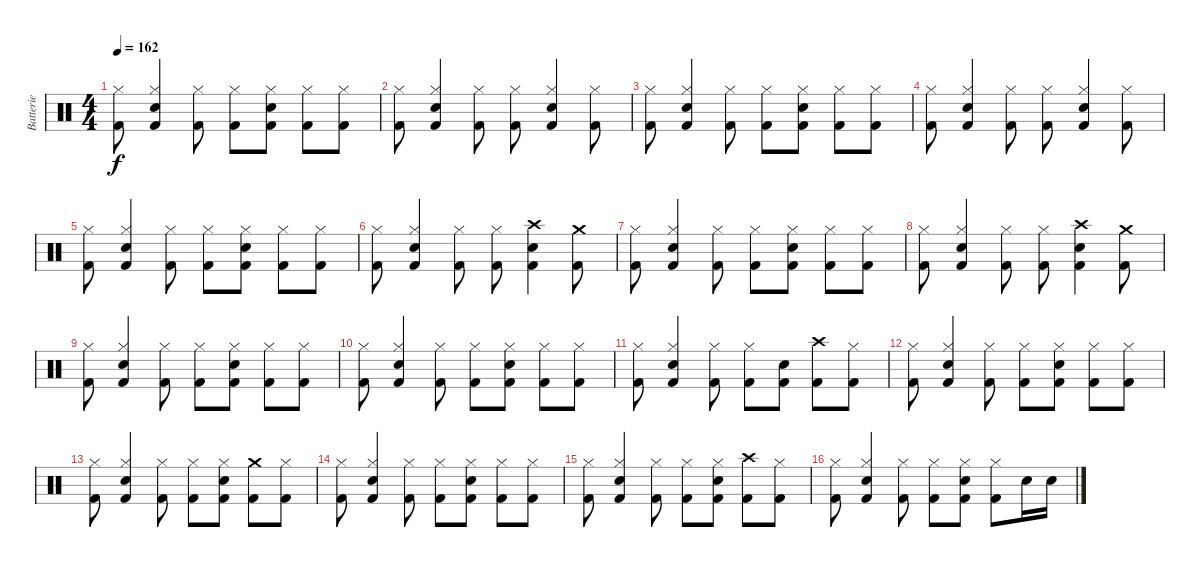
\track ("Batterie" "Batterie") {instrument percussion}
\staff {score}
\articulation defaults
\ts (4 4)
\tempo 162
\clef neutral
\ks c
("Kick (hit) 2" "Hi-Hat (closed)").8{dy f} ("Kick (hit) 2" "Snare (hit) 2" "Hi-Hat (closed)").4 ("Kick (hit) 2" "Hi-Hat (closed)").8 ("Kick (hit) 2" "Hi-Hat (closed)").8 ("Kick (hit) 2" "Snare (hit) 2" "Hi-Hat (closed)").8 ("Kick (hit) 2" "Hi-Hat (closed)").8 ("Kick (hit) 2" "Hi-Hat (closed)").8 |
("Kick (hit) 2" "Hi-Hat (closed)").8 ("Kick (hit) 2" "Snare (hit) 2" "Hi-Hat (closed)").4 ("Kick (hit) 2" "Hi-Hat (closed)").8 ("Kick (hit) 2" "Hi-Hat (closed)").8 ("Kick (hit) 2" "Snare (hit) 2" "Hi-Hat (closed)").4 ("Kick (hit) 2" "Hi-Hat (closed)").8 |
("Kick (hit) 2" "Hi-Hat (closed)").8 ("Kick (hit) 2" "Snare (hit) 2" "Hi-Hat (closed)").4 ("Kick (hit) 2" "Hi-Hat (closed)").8 ("Kick (hit) 2" "Hi-Hat (closed)").8 ("Kick (hit) 2" "Snare (hit) 2" "Hi-Hat (closed)").8 ("Kick (hit) 2" "Hi-Hat (closed)").8 ("Kick (hit) 2" "Hi-Hat (closed)").8 |
("Kick (hit) 2" "Hi-Hat (closed)").8 ("Kick (hit) 2" "Snare (hit) 2" "Hi-Hat (closed)").4 ("Kick (hit) 2" "Hi-Hat (closed)").8 ("Kick (hit) 2" "Hi-Hat (closed)").8 ("Kick (hit) 2" "Snare (hit) 2" "Hi-Hat (closed)").4 ("Kick (hit) 2" "Hi-Hat (closed)").8 |
("Kick (hit) 2" "Hi-Hat (closed)").8 ("Kick (hit) 2" "Snare (hit) 2" "Hi-Hat (closed)").4 ("Kick (hit) 2" "Hi-Hat (closed)").8 ("Kick (hit) 2" "Hi-Hat (closed)").8 ("Kick (hit) 2" "Snare (hit) 2" "Hi-Hat (closed)").8 ("Kick (hit) 2" "Hi-Hat (closed)").8 ("Kick (hit) 2" "Hi-Hat (closed)").8 |
("Kick (hit) 2" "Hi-Hat (closed)").8 ("Kick (hit) 2" "Snare (hit) 2" "Hi-Hat (closed)").4 ("Kick (hit) 2" "Hi-Hat (closed)").8 ("Kick (hit) 2" "Hi-Hat (closed)").8 ("Kick (hit) 2" "Snare (hit) 2" "Crash high (hit)").4 ("Kick (hit) 2" "Crash medium (hit)").8 |
("Kick (hit) 2" "Hi-Hat (closed)").8 ("Kick (hit) 2" "Snare (hit) 2" "Hi-Hat (closed)").4 ("Kick (hit) 2" "Hi-Hat (closed)").8 ("Kick (hit) 2" "Hi-Hat (closed)").8 ("Kick (hit) 2" "Snare (hit) 2" "Hi-Hat (closed)").8 ("Kick (hit) 2" "Hi-Hat (closed)").8 ("Kick (hit) 2" "Hi-Hat (closed)").8 |
("Kick (hit) 2" "Hi-Hat (closed)").8 ("Kick (hit) 2" "Snare (hit) 2" "Hi-Hat (closed)").4 ("Kick (hit) 2" "Hi-Hat (closed)").8 ("Kick (hit) 2" "Hi-Hat (closed)").8 ("Kick (hit) 2" "Snare (hit) 2" "Crash high (hit)").4 ("Kick (hit) 2" "Crash medium (hit)").8 |
("Kick (hit) 2" "Hi-Hat (closed)").8 ("Kick (hit) 2" "Snare (hit) 2" "Hi-Hat (closed)").4 ("Kick (hit) 2" "Hi-Hat (closed)").8 ("Kick (hit) 2" "Hi-Hat (closed)").8 ("Kick (hit) 2" "Snare (hit) 2" "Hi-Hat (closed)").8 ("Kick (hit) 2" "Hi-Hat (closed)").8 ("Kick (hit) 2" "Hi-Hat (closed)").8 |
("Kick (hit) 2" "Hi-Hat (closed)").8 ("Kick (hit) 2" "Snare (hit) 2" "Hi-Hat (closed)").4 ("Kick (hit) 2" "Hi-Hat (closed)").8 ("Kick (hit) 2" "Hi-Hat (closed)").8 ("Kick (hit) 2" "Snare (hit) 2" "Hi-Hat (closed)").8 ("Kick (hit) 2" "Hi-Hat (closed)").8 ("Kick (hit) 2" "Hi-Hat (closed)").8 |
("Kick (hit) 2" "Hi-Hat (closed)").8 ("Kick (hit) 2" "Snare (hit) 2" "Hi-Hat (closed)").4 ("Kick (hit) 2" "Hi-Hat (closed)").8 ("Kick (hit) 2" "Hi-Hat (closed)").8 ("Kick (hit) 2" "Snare (hit) 2").8 ("Kick (hit) 2" "Crash high (hit)").8 ("Kick (hit) 2" "Hi-Hat (closed)").8 |
("Kick (hit) 2" "Hi-Hat (closed)").8 ("Kick (hit) 2" "Snare (hit) 2" "Hi-Hat (closed)").4 ("Kick (hit) 2" "Hi-Hat (closed)").8 ("Kick (hit) 2" "Hi-Hat (closed)").8 ("Kick (hit) 2" "Snare (hit) 2" "Hi-Hat (closed)").8 ("Kick (hit) 2" "Hi-Hat (closed)").8 ("Kick (hit) 2" "Hi-Hat (closed)").8 |
("Kick (hit) 2" "Hi-Hat (closed)").8 ("Kick (hit) 2" "Snare (hit) 2" "Hi-Hat (closed)").4 ("Kick (hit) 2" "Hi-Hat (closed)").8 ("Kick (hit) 2" "Hi-Hat (closed)").8 ("Kick (hit) 2" "Snare (hit) 2" "Hi-Hat (closed)").8 ("Kick (hit) 2" "Crash medium (hit)").8 ("Kick (hit) 2" "Hi-Hat (closed)").8 |
("Kick (hit) 2" "Hi-Hat (closed)").8 ("Kick (hit) 2" "Snare (hit) 2" "Hi-Hat (closed)").4 ("Kick (hit) 2" "Hi-Hat (closed)").8 ("Kick (hit) 2" "Hi-Hat (closed)").8 ("Kick (hit) 2" "Snare (hit) 2" "Hi-Hat (closed)").8 ("Kick (hit) 2" "Hi-Hat (closed)").8 ("Kick (hit) 2" "Hi-Hat (closed)").8 |
("Kick (hit) 2" "Hi-Hat (closed)").8 ("Kick (hit) 2" "Snare (hit) 2" "Hi-Hat (closed)").4 ("Kick (hit) 2" "Hi-Hat (closed)").8 ("Kick (hit) 2" "Hi-Hat (closed)").8 ("Kick (hit) 2" "Snare (hit) 2" "Hi-Hat (closed)").8 ("Kick (hit) 2" "Crash high (hit)").8 ("Kick (hit) 2" "Hi-Hat (closed)").8 |
("Kick (hit) 2" "Hi-Hat (closed)").8 ("Kick (hit) 2" "Snare (hit) 2" "Hi-Hat (closed)").4 ("Kick (hit) 2" "Hi-Hat (closed)").8 ("Kick (hit) 2" "Hi-Hat (closed)").8 ("Kick (hit) 2" "Snare (hit) 2" "Hi-Hat (closed)").8 ("Kick (hit) 2" "Hi-Hat (closed)").8 "Snare (hit) 2".16 "Snare (hit) 2".16
